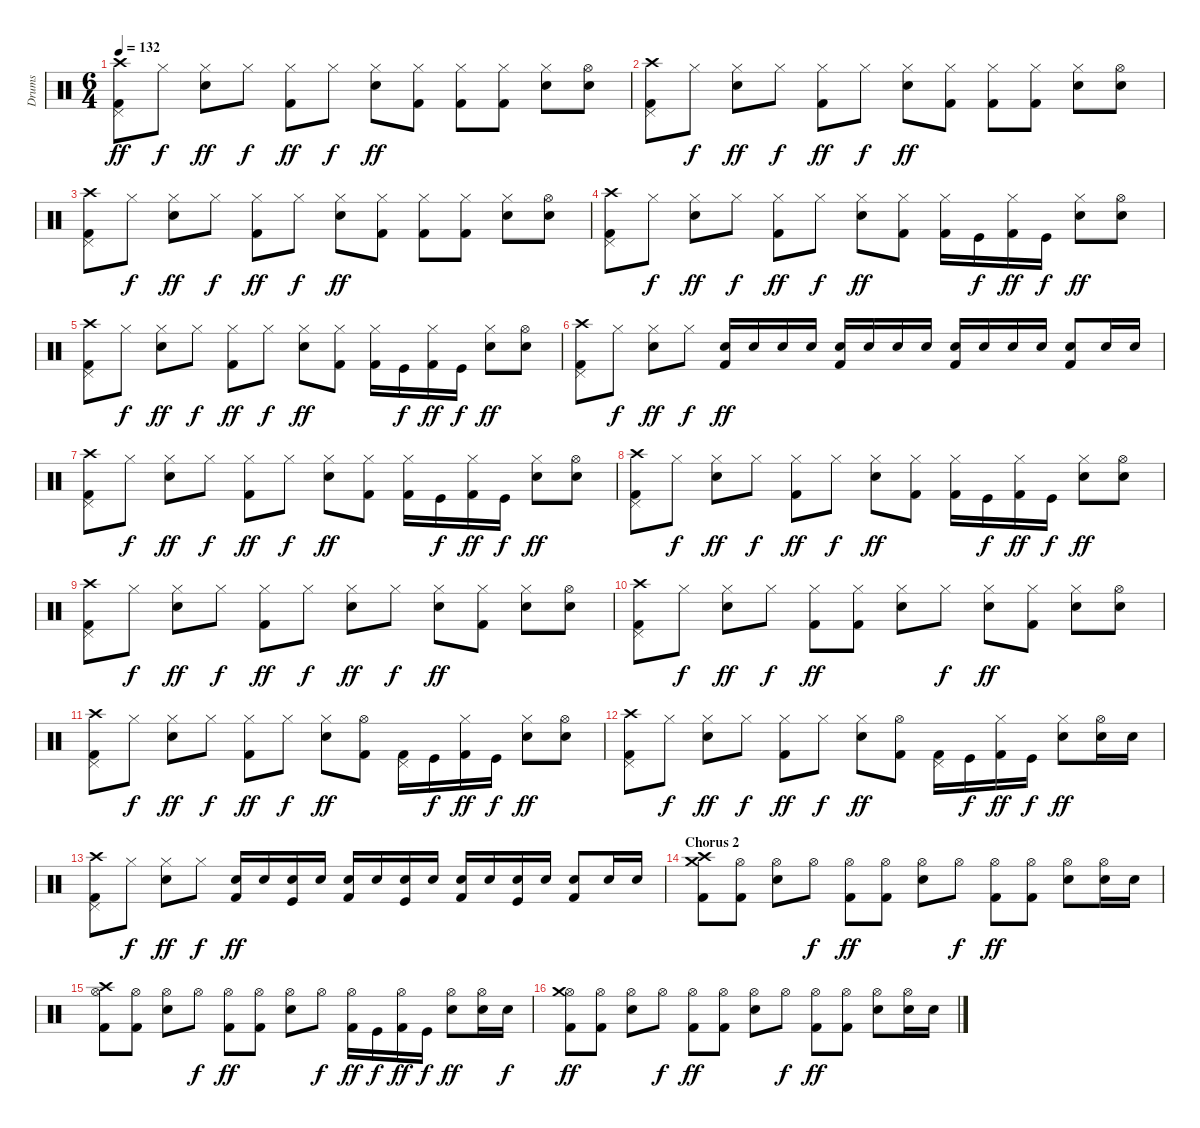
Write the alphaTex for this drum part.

\track ("Drums" "Drums") {instrument percussion}
\staff {score}
\articulation defaults
\ts (6 4)
\tempo 132
\clef neutral
\ks c
("Pedal Hi-Hat (hit)" "Crash high (hit)" "Kick (hit) 2").8{dy ff} "Hi-Hat (closed)".8{dy f} ("Hi-Hat (closed)" "Electric Snare (hit)").8{dy ff} "Hi-Hat (closed)".8{dy f} ("Hi-Hat (closed)" "Kick (hit) 2").8{dy ff} "Hi-Hat (closed)".8{dy f} ("Hi-Hat (closed)" "Electric Snare (hit)").8{dy ff} ("Hi-Hat (closed)" "Kick (hit) 2").8 ("Hi-Hat (closed)" "Kick (hit) 2").8 ("Hi-Hat (closed)" "Kick (hit) 2").8 ("Hi-Hat (closed)" "Electric Snare (hit)").8 ("Hi-Hat (open)" "Electric Snare (hit)").8 |
("Pedal Hi-Hat (hit)" "Crash high (hit)" "Kick (hit) 2").8 "Hi-Hat (closed)".8{dy f} ("Hi-Hat (closed)" "Electric Snare (hit)").8{dy ff} "Hi-Hat (closed)".8{dy f} ("Hi-Hat (closed)" "Kick (hit) 2").8{dy ff} "Hi-Hat (closed)".8{dy f} ("Hi-Hat (closed)" "Electric Snare (hit)").8{dy ff} ("Hi-Hat (closed)" "Kick (hit) 2").8 ("Hi-Hat (closed)" "Kick (hit) 2").8 ("Hi-Hat (closed)" "Kick (hit) 2").8 ("Hi-Hat (closed)" "Electric Snare (hit)").8 ("Hi-Hat (open)" "Electric Snare (hit)").8 |
("Pedal Hi-Hat (hit)" "Crash high (hit)" "Kick (hit) 2").8 "Hi-Hat (closed)".8{dy f} ("Hi-Hat (closed)" "Electric Snare (hit)").8{dy ff} "Hi-Hat (closed)".8{dy f} ("Hi-Hat (closed)" "Kick (hit) 2").8{dy ff} "Hi-Hat (closed)".8{dy f} ("Hi-Hat (closed)" "Electric Snare (hit)").8{dy ff} ("Hi-Hat (closed)" "Kick (hit) 2").8 ("Hi-Hat (closed)" "Kick (hit) 2").8 ("Hi-Hat (closed)" "Kick (hit) 2").8 ("Hi-Hat (closed)" "Electric Snare (hit)").8 ("Hi-Hat (open)" "Electric Snare (hit)").8 |
("Pedal Hi-Hat (hit)" "Crash high (hit)" "Kick (hit) 2").8 "Hi-Hat (closed)".8{dy f} ("Hi-Hat (closed)" "Electric Snare (hit)").8{dy ff} "Hi-Hat (closed)".8{dy f} ("Hi-Hat (closed)" "Kick (hit) 2").8{dy ff} "Hi-Hat (closed)".8{dy f} ("Hi-Hat (closed)" "Electric Snare (hit)").8{dy ff} ("Hi-Hat (closed)" "Kick (hit) 2").8 ("Hi-Hat (closed)" "Kick (hit) 2").16 "Kick (hit)".16{dy f} ("Hi-Hat (closed)" "Kick (hit) 2").16{dy ff} "Kick (hit)".16{dy f} ("Hi-Hat (closed)" "Electric Snare (hit)").8{dy ff} ("Hi-Hat (open)" "Electric Snare (hit)").8 |
("Pedal Hi-Hat (hit)" "Crash high (hit)" "Kick (hit) 2").8 "Hi-Hat (closed)".8{dy f} ("Hi-Hat (closed)" "Electric Snare (hit)").8{dy ff} "Hi-Hat (closed)".8{dy f} ("Hi-Hat (closed)" "Kick (hit) 2").8{dy ff} "Hi-Hat (closed)".8{dy f} ("Hi-Hat (closed)" "Electric Snare (hit)").8{dy ff} ("Hi-Hat (closed)" "Kick (hit) 2").8 ("Hi-Hat (closed)" "Kick (hit) 2").16 "Kick (hit)".16{dy f} ("Hi-Hat (closed)" "Kick (hit) 2").16{dy ff} "Kick (hit)".16{dy f} ("Hi-Hat (closed)" "Electric Snare (hit)").8{dy ff} ("Hi-Hat (open)" "Electric Snare (hit)").8 |
("Pedal Hi-Hat (hit)" "Crash high (hit)" "Kick (hit) 2").8 "Hi-Hat (closed)".8{dy f} ("Hi-Hat (closed)" "Electric Snare (hit)").8{dy ff} "Hi-Hat (closed)".8{dy f} ("Electric Snare (hit)" "Kick (hit) 2").16{dy ff} "Electric Snare (hit)".16 "Electric Snare (hit)".16 "Electric Snare (hit)".16 ("Electric Snare (hit)" "Kick (hit) 2").16 "Electric Snare (hit)".16 "Electric Snare (hit)".16 "Electric Snare (hit)".16 ("Electric Snare (hit)" "Kick (hit) 2").16 "Electric Snare (hit)".16 "Electric Snare (hit)".16 "Electric Snare (hit)".16 ("Electric Snare (hit)" "Kick (hit) 2").8 "Electric Snare (hit)".16 "Electric Snare (hit)".16 |
("Pedal Hi-Hat (hit)" "Crash high (hit)" "Kick (hit) 2").8 "Hi-Hat (closed)".8{dy f} ("Hi-Hat (closed)" "Electric Snare (hit)").8{dy ff} "Hi-Hat (closed)".8{dy f} ("Hi-Hat (closed)" "Kick (hit) 2").8{dy ff} "Hi-Hat (closed)".8{dy f} ("Hi-Hat (closed)" "Electric Snare (hit)").8{dy ff} ("Hi-Hat (closed)" "Kick (hit) 2").8 ("Hi-Hat (closed)" "Kick (hit) 2").16 "Kick (hit)".16{dy f} ("Hi-Hat (closed)" "Kick (hit) 2").16{dy ff} "Kick (hit)".16{dy f} ("Hi-Hat (closed)" "Electric Snare (hit)").8{dy ff} ("Hi-Hat (open)" "Electric Snare (hit)").8 |
("Pedal Hi-Hat (hit)" "Crash high (hit)" "Kick (hit) 2").8 "Hi-Hat (closed)".8{dy f} ("Hi-Hat (closed)" "Electric Snare (hit)").8{dy ff} "Hi-Hat (closed)".8{dy f} ("Hi-Hat (closed)" "Kick (hit) 2").8{dy ff} "Hi-Hat (closed)".8{dy f} ("Hi-Hat (closed)" "Electric Snare (hit)").8{dy ff} ("Hi-Hat (closed)" "Kick (hit) 2").8 ("Hi-Hat (closed)" "Kick (hit) 2").16 "Kick (hit)".16{dy f} ("Hi-Hat (closed)" "Kick (hit) 2").16{dy ff} "Kick (hit)".16{dy f} ("Hi-Hat (closed)" "Electric Snare (hit)").8{dy ff} ("Hi-Hat (open)" "Electric Snare (hit)").8 |
("Pedal Hi-Hat (hit)" "Crash high (hit)" "Kick (hit) 2").8 "Hi-Hat (closed)".8{dy f} ("Hi-Hat (closed)" "Electric Snare (hit)").8{dy ff} "Hi-Hat (closed)".8{dy f} ("Hi-Hat (closed)" "Kick (hit) 2").8{dy ff} "Hi-Hat (closed)".8{dy f} ("Hi-Hat (closed)" "Electric Snare (hit)").8{dy ff} "Hi-Hat (closed)".8{dy f} ("Hi-Hat (closed)" "Electric Snare (hit)").8{dy ff} ("Hi-Hat (closed)" "Kick (hit) 2").8 ("Hi-Hat (closed)" "Electric Snare (hit)").8 ("Hi-Hat (open)" "Electric Snare (hit)").8 |
("Pedal Hi-Hat (hit)" "Crash high (hit)" "Kick (hit) 2").8 "Hi-Hat (closed)".8{dy f} ("Hi-Hat (closed)" "Electric Snare (hit)").8{dy ff} "Hi-Hat (closed)".8{dy f} ("Hi-Hat (closed)" "Kick (hit) 2").8{dy ff} ("Hi-Hat (closed)" "Kick (hit) 2").8 ("Hi-Hat (closed)" "Electric Snare (hit)").8 "Hi-Hat (closed)".8{dy f} ("Hi-Hat (closed)" "Electric Snare (hit)").8{dy ff} ("Hi-Hat (closed)" "Kick (hit) 2").8 ("Hi-Hat (closed)" "Electric Snare (hit)").8 ("Hi-Hat (open)" "Electric Snare (hit)").8 |
("Pedal Hi-Hat (hit)" "Crash high (hit)" "Kick (hit) 2").8 "Hi-Hat (closed)".8{dy f} ("Hi-Hat (closed)" "Electric Snare (hit)").8{dy ff} "Hi-Hat (closed)".8{dy f} ("Hi-Hat (closed)" "Kick (hit) 2").8{dy ff} "Hi-Hat (closed)".8{dy f} ("Hi-Hat (closed)" "Electric Snare (hit)").8{dy ff} ("Hi-Hat (open)" "Kick (hit) 2").8 ("Pedal Hi-Hat (hit)" "Kick (hit) 2").16 "Kick (hit)".16{dy f} ("Hi-Hat (closed)" "Kick (hit) 2").16{dy ff} "Kick (hit)".16{dy f} ("Hi-Hat (closed)" "Electric Snare (hit)").8{dy ff} ("Hi-Hat (open)" "Electric Snare (hit)").8 |
("Pedal Hi-Hat (hit)" "Crash high (hit)" "Kick (hit) 2").8 "Hi-Hat (closed)".8{dy f} ("Hi-Hat (closed)" "Electric Snare (hit)").8{dy ff} "Hi-Hat (closed)".8{dy f} ("Hi-Hat (closed)" "Kick (hit) 2").8{dy ff} "Hi-Hat (closed)".8{dy f} ("Hi-Hat (closed)" "Electric Snare (hit)").8{dy ff} ("Hi-Hat (open)" "Kick (hit) 2").8 ("Pedal Hi-Hat (hit)" "Kick (hit) 2").16 "Kick (hit)".16{dy f} ("Hi-Hat (closed)" "Kick (hit) 2").16{dy ff} "Kick (hit)".16{dy f} ("Hi-Hat (closed)" "Electric Snare (hit)").8{dy ff} ("Hi-Hat (open)" "Electric Snare (hit)").16 "Electric Snare (hit)".16 |
("Pedal Hi-Hat (hit)" "Crash high (hit)" "Kick (hit) 2").8 "Hi-Hat (closed)".8{dy f} ("Hi-Hat (closed)" "Electric Snare (hit)").8{dy ff} "Hi-Hat (closed)".8{dy f} ("Electric Snare (hit)" "Kick (hit) 2").16{dy ff} "Electric Snare (hit)".16 ("Electric Snare (hit)" "Kick (hit)").16 "Electric Snare (hit)".16 ("Electric Snare (hit)" "Kick (hit) 2").16 "Electric Snare (hit)".16 ("Electric Snare (hit)" "Kick (hit)").16 "Electric Snare (hit)".16 ("Electric Snare (hit)" "Kick (hit) 2").16 "Electric Snare (hit)".16 ("Electric Snare (hit)" "Kick (hit)").16 "Electric Snare (hit)".16 ("Electric Snare (hit)" "Kick (hit) 2").8 "Electric Snare (hit)".16 "Electric Snare (hit)".16 |
\section ("" "Chorus 2")
("Crash high (hit)" "Crash medium (hit)" "Kick (hit) 2").8 ("Hi-Hat (open)" "Kick (hit) 2").8 ("Hi-Hat (open)" "Electric Snare (hit)").8 "Hi-Hat (open)".8{dy f} ("Hi-Hat (open)" "Kick (hit) 2").8{dy ff} ("Hi-Hat (open)" "Kick (hit) 2").8 ("Hi-Hat (open)" "Electric Snare (hit)").8 "Hi-Hat (open)".8{dy f} ("Hi-Hat (open)" "Kick (hit) 2").8{dy ff} ("Hi-Hat (open)" "Kick (hit) 2").8 ("Hi-Hat (open)" "Electric Snare (hit)").8 ("Hi-Hat (open)" "Electric Snare (hit)").16 "Electric Snare (hit)".16 |
("Hi-Hat (open)" "Crash high (hit)" "Kick (hit) 2").8 ("Hi-Hat (open)" "Kick (hit) 2").8 ("Hi-Hat (open)" "Electric Snare (hit)").8 "Hi-Hat (open)".8{dy f} ("Hi-Hat (open)" "Kick (hit) 2").8{dy ff} ("Hi-Hat (open)" "Kick (hit) 2").8 ("Hi-Hat (open)" "Electric Snare (hit)").8 "Hi-Hat (open)".8{dy f} ("Hi-Hat (open)" "Kick (hit) 2").16{dy ff} "Kick (hit)".16{dy f} ("Hi-Hat (open)" "Kick (hit) 2").16{dy ff} "Kick (hit)".16{dy f} ("Hi-Hat (open)" "Electric Snare (hit)").8{dy ff} ("Hi-Hat (open)" "Electric Snare (hit)").16 "Electric Snare (hit)".16{dy f} |
("Hi-Hat (open)" "Crash medium (hit)" "Kick (hit) 2").8{dy ff} ("Hi-Hat (open)" "Kick (hit) 2").8 ("Hi-Hat (open)" "Electric Snare (hit)").8 "Hi-Hat (open)".8{dy f} ("Hi-Hat (open)" "Kick (hit) 2").8{dy ff} ("Hi-Hat (open)" "Kick (hit) 2").8 ("Hi-Hat (open)" "Electric Snare (hit)").8 "Hi-Hat (open)".8{dy f} ("Hi-Hat (open)" "Kick (hit) 2").8{dy ff} ("Hi-Hat (open)" "Kick (hit) 2").8 ("Hi-Hat (open)" "Electric Snare (hit)").8 ("Hi-Hat (open)" "Electric Snare (hit)").16 "Electric Snare (hit)".16
